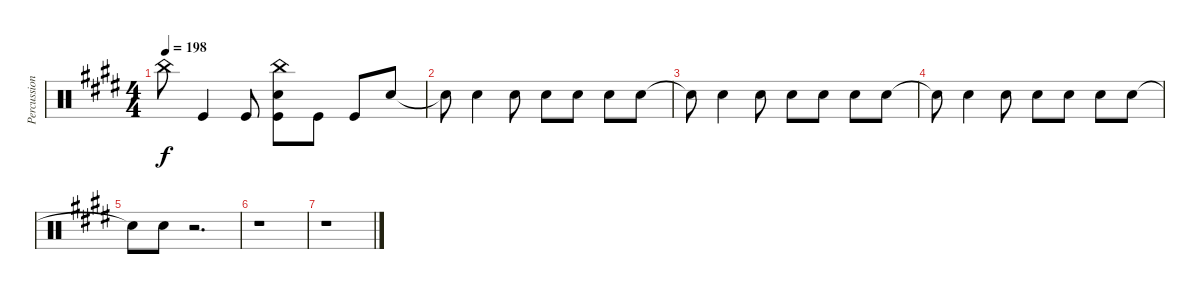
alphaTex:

\track ("Percussion" "Percussion") {instrument percussion}
\staff {score}
\articulation defaults
\ts (4 4)
\tempo 198
\clef neutral
\ks e "China (hit)".8{dy f} "Kick (hit)".4 "Kick (hit)".8
("China (hit)" "Electric Snare (hit)" "Kick (hit)").8 "Kick (hit)".8 "Kick (hit)".8 "Electric Snare (hit)".8 |
"Snare (hit)"{t}.8 "Electric Snare (hit)".4 "Electric Snare (hit)".8 "Electric Snare (hit)".8 "Electric Snare (hit)".8 "Electric Snare (hit)".8 "Electric Snare (hit)".8 |
"Snare (hit)"{t}.8 "Electric Snare (hit)".4 "Electric Snare (hit)".8 "Electric Snare (hit)".8 "Electric Snare (hit)".8 "Electric Snare (hit)".8 "Electric Snare (hit)".8 |
"Snare (hit)"{t}.8 "Electric Snare (hit)".4 "Electric Snare (hit)".8 "Electric Snare (hit)".8 "Electric Snare (hit)".8 "Electric Snare (hit)".8 "Electric Snare (hit)".8 |
"Snare (hit)"{t}.8 "Electric Snare (hit)".8 r.2{d} |
r.1 |
r.1
